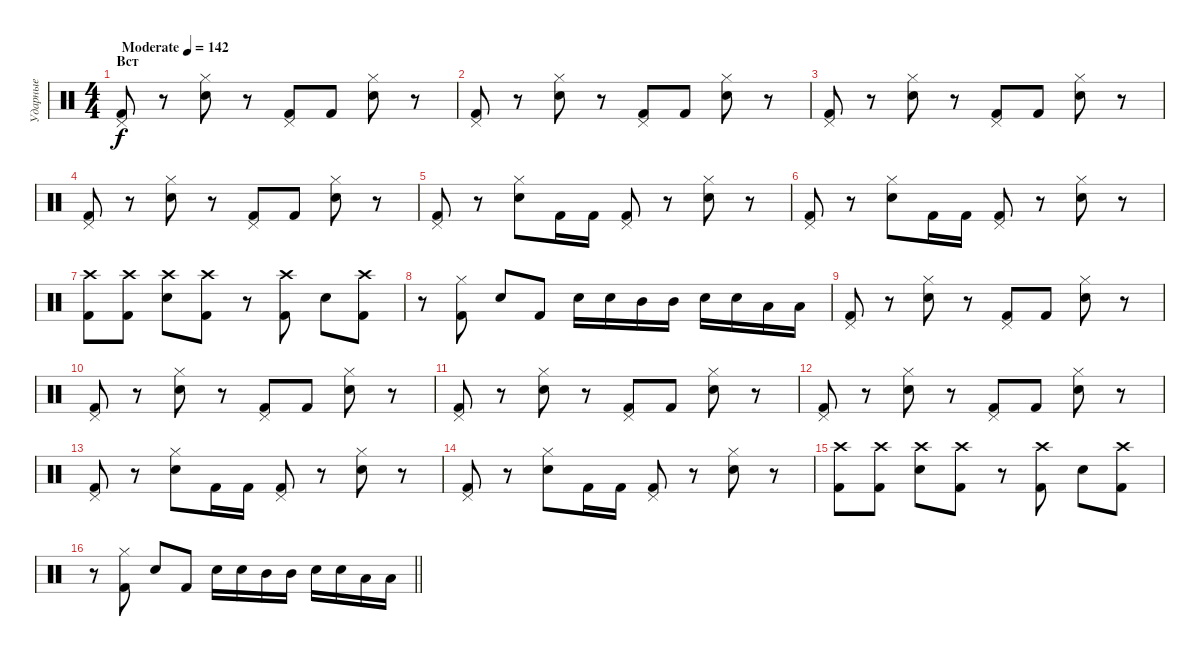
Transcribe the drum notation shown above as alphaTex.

\track ("Ударные" "Ударные") {instrument percussion}
\staff {score}
\articulation defaults
\ts (4 4)
\section ("" "Вст")
\tempo (142 "Moderate")
\clef neutral
\ks c
("Pedal Hi-Hat (hit)" "Kick (hit) 2").8{dy f} r.8 ("Hi-Hat (closed)" "Electric Snare (hit)").8 r.8 ("Pedal Hi-Hat (hit)" "Kick (hit) 2").8 "Kick (hit) 2".8 ("Hi-Hat (closed)" "Electric Snare (hit)").8 r.8 |
("Pedal Hi-Hat (hit)" "Kick (hit) 2").8 r.8 ("Hi-Hat (closed)" "Electric Snare (hit)").8 r.8 ("Pedal Hi-Hat (hit)" "Kick (hit) 2").8 "Kick (hit) 2".8 ("Hi-Hat (closed)" "Electric Snare (hit)").8 r.8 |
("Pedal Hi-Hat (hit)" "Kick (hit) 2").8 r.8 ("Hi-Hat (closed)" "Electric Snare (hit)").8 r.8 ("Pedal Hi-Hat (hit)" "Kick (hit) 2").8 "Kick (hit) 2".8 ("Hi-Hat (closed)" "Electric Snare (hit)").8 r.8 |
("Pedal Hi-Hat (hit)" "Kick (hit) 2").8 r.8 ("Hi-Hat (closed)" "Electric Snare (hit)").8 r.8 ("Pedal Hi-Hat (hit)" "Kick (hit) 2").8 "Kick (hit) 2".8 ("Hi-Hat (closed)" "Electric Snare (hit)").8 r.8 |
("Pedal Hi-Hat (hit)" "Kick (hit) 2").8 r.8 ("Hi-Hat (closed)" "Electric Snare (hit)").8 "Kick (hit) 2".16 "Kick (hit) 2".16 ("Pedal Hi-Hat (hit)" "Kick (hit) 2").8 r.8 ("Hi-Hat (closed)" "Electric Snare (hit)").8 r.8 |
("Pedal Hi-Hat (hit)" "Kick (hit) 2").8 r.8 ("Hi-Hat (closed)" "Electric Snare (hit)").8 "Kick (hit) 2".16 "Kick (hit) 2".16 ("Pedal Hi-Hat (hit)" "Kick (hit) 2").8 r.8 ("Hi-Hat (closed)" "Electric Snare (hit)").8 r.8 |
("Crash high (hit)" "Kick (hit) 2").8 ("Crash high (hit)" "Kick (hit) 2").8 ("Crash high (hit)" "Electric Snare (hit)").8 ("Crash high (hit)" "Kick (hit) 2").8 r.8 ("Crash high (hit)" "Kick (hit) 2").8 "Electric Snare (hit)".8 ("Crash high (hit)" "Kick (hit) 2").8 |
r.8 ("Hi-Hat (closed)" "Kick (hit) 2").8 "Electric Snare (hit)".8 "Kick (hit) 2".8 "Electric Snare (hit)".16 "Electric Snare (hit)".16 "Mid Tom (hit)".16 "Mid Tom (hit)".16 "Electric Snare (hit)".16 "Electric Snare (hit)".16 "Low Tom (hit)".16 "Low Tom (hit)".16 |
("Pedal Hi-Hat (hit)" "Kick (hit) 2").8 r.8 ("Hi-Hat (closed)" "Electric Snare (hit)").8 r.8 ("Pedal Hi-Hat (hit)" "Kick (hit) 2").8 "Kick (hit) 2".8 ("Hi-Hat (closed)" "Electric Snare (hit)").8 r.8 |
("Pedal Hi-Hat (hit)" "Kick (hit) 2").8 r.8 ("Hi-Hat (closed)" "Electric Snare (hit)").8 r.8 ("Pedal Hi-Hat (hit)" "Kick (hit) 2").8 "Kick (hit) 2".8 ("Hi-Hat (closed)" "Electric Snare (hit)").8 r.8 |
("Pedal Hi-Hat (hit)" "Kick (hit) 2").8 r.8 ("Hi-Hat (closed)" "Electric Snare (hit)").8 r.8 ("Pedal Hi-Hat (hit)" "Kick (hit) 2").8 "Kick (hit) 2".8 ("Hi-Hat (closed)" "Electric Snare (hit)").8 r.8 |
("Pedal Hi-Hat (hit)" "Kick (hit) 2").8 r.8 ("Hi-Hat (closed)" "Electric Snare (hit)").8 r.8 ("Pedal Hi-Hat (hit)" "Kick (hit) 2").8 "Kick (hit) 2".8 ("Hi-Hat (closed)" "Electric Snare (hit)").8 r.8 |
("Pedal Hi-Hat (hit)" "Kick (hit) 2").8 r.8 ("Hi-Hat (closed)" "Electric Snare (hit)").8 "Kick (hit) 2".16 "Kick (hit) 2".16 ("Pedal Hi-Hat (hit)" "Kick (hit) 2").8 r.8 ("Hi-Hat (closed)" "Electric Snare (hit)").8 r.8 |
("Pedal Hi-Hat (hit)" "Kick (hit) 2").8 r.8 ("Hi-Hat (closed)" "Electric Snare (hit)").8 "Kick (hit) 2".16 "Kick (hit) 2".16 ("Pedal Hi-Hat (hit)" "Kick (hit) 2").8 r.8 ("Hi-Hat (closed)" "Electric Snare (hit)").8 r.8 |
("Crash high (hit)" "Kick (hit) 2").8 ("Crash high (hit)" "Kick (hit) 2").8 ("Crash high (hit)" "Electric Snare (hit)").8 ("Crash high (hit)" "Kick (hit) 2").8 r.8 ("Crash high (hit)" "Kick (hit) 2").8 "Electric Snare (hit)".8 ("Crash high (hit)" "Kick (hit) 2").8 |
\barLineRight lightlight
r.8 ("Hi-Hat (closed)" "Kick (hit) 2").8 "Electric Snare (hit)".8 "Kick (hit) 2".8 "Electric Snare (hit)".16 "Electric Snare (hit)".16 "Mid Tom (hit)".16 "Mid Tom (hit)".16 "Electric Snare (hit)".16 "Electric Snare (hit)".16 "Low Tom (hit)".16 "Low Tom (hit)".16
